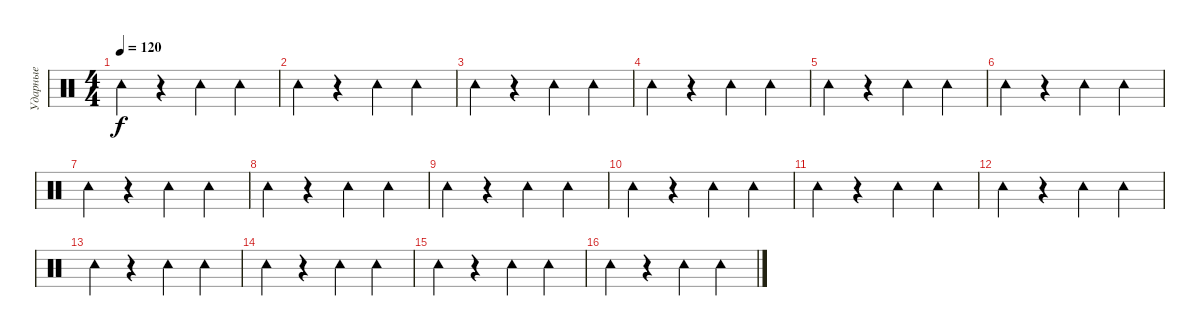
\track ("Ударные" "Ударные") {instrument percussion}
\staff {score}
\articulation defaults
\ts (4 4)
\tempo 120
\clef neutral
\ks c "Tambourine (hit)".4{dy f}
r.4 "Tambourine (hit)".4 "Tambourine (hit)".4 |
"Tambourine (hit)".4 r.4 "Tambourine (hit)".4 "Tambourine (hit)".4 |
"Tambourine (hit)".4 r.4 "Tambourine (hit)".4 "Tambourine (hit)".4 |
"Tambourine (hit)".4 r.4 "Tambourine (hit)".4 "Tambourine (hit)".4 |
"Tambourine (hit)".4 r.4 "Tambourine (hit)".4 "Tambourine (hit)".4 |
"Tambourine (hit)".4 r.4 "Tambourine (hit)".4 "Tambourine (hit)".4 |
"Tambourine (hit)".4 r.4 "Tambourine (hit)".4 "Tambourine (hit)".4 |
"Tambourine (hit)".4 r.4 "Tambourine (hit)".4 "Tambourine (hit)".4 |
"Tambourine (hit)".4 r.4 "Tambourine (hit)".4 "Tambourine (hit)".4 |
"Tambourine (hit)".4 r.4 "Tambourine (hit)".4 "Tambourine (hit)".4 |
"Tambourine (hit)".4 r.4 "Tambourine (hit)".4 "Tambourine (hit)".4 |
"Tambourine (hit)".4 r.4 "Tambourine (hit)".4 "Tambourine (hit)".4 |
"Tambourine (hit)".4 r.4 "Tambourine (hit)".4 "Tambourine (hit)".4 |
"Tambourine (hit)".4 r.4 "Tambourine (hit)".4 "Tambourine (hit)".4 |
"Tambourine (hit)".4 r.4 "Tambourine (hit)".4 "Tambourine (hit)".4 |
"Tambourine (hit)".4 r.4 "Tambourine (hit)".4 "Tambourine (hit)".4
